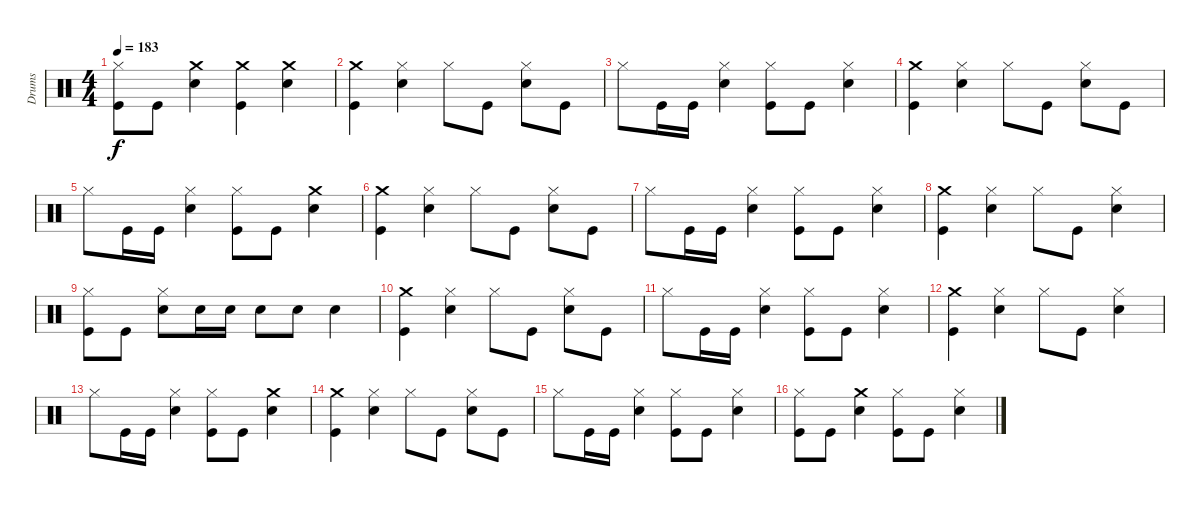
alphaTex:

\track ("Drums" "Drums") {instrument percussion}
\staff {score}
\articulation defaults
\ts (4 4)
\tempo 183
\clef neutral
\ks c
("Kick (hit)" "Hi-Hat (closed)").8{dy f} "Kick (hit)".8 ("Crash medium (hit)" "Snare (hit) 2").4 ("Kick (hit)" "Crash medium (hit)").4 ("Snare (hit) 2" "Crash medium (hit)").4 |
("Kick (hit)" "Crash medium (hit)").4 ("Snare (hit) 2" "Hi-Hat (closed)").4 "Hi-Hat (closed)".8 "Kick (hit)".8 ("Snare (hit) 2" "Hi-Hat (closed)").8 "Kick (hit)".8 |
"Hi-Hat (closed)".8 "Kick (hit)".16 "Kick (hit)".16 ("Snare (hit) 2" "Hi-Hat (closed)").4 ("Kick (hit)" "Hi-Hat (closed)").8 "Kick (hit)".8 ("Snare (hit) 2" "Hi-Hat (closed)").4 |
("Kick (hit)" "Crash medium (hit)").4 ("Hi-Hat (closed)" "Snare (hit) 2").4 "Hi-Hat (closed)".8 "Kick (hit)".8 ("Snare (hit) 2" "Hi-Hat (closed)").8 "Kick (hit)".8 |
"Hi-Hat (closed)".8 "Kick (hit)".16 "Kick (hit)".16 ("Snare (hit) 2" "Hi-Hat (closed)").4 ("Kick (hit)" "Hi-Hat (closed)").8 "Kick (hit)".8 ("Crash medium (hit)" "Snare (hit) 2").4 |
("Kick (hit)" "Crash medium (hit)").4 ("Hi-Hat (closed)" "Snare (hit) 2").4 "Hi-Hat (closed)".8 "Kick (hit)".8 ("Snare (hit) 2" "Hi-Hat (closed)").8 "Kick (hit)".8 |
"Hi-Hat (closed)".8 "Kick (hit)".16 "Kick (hit)".16 ("Snare (hit) 2" "Hi-Hat (closed)").4 ("Kick (hit)" "Hi-Hat (closed)").8 "Kick (hit)".8 ("Snare (hit) 2" "Hi-Hat (closed)").4 |
("Kick (hit)" "Crash medium (hit)").4 ("Hi-Hat (closed)" "Snare (hit) 2").4 "Hi-Hat (closed)".8 "Kick (hit)".8 ("Snare (hit) 2" "Hi-Hat (closed)").4 |
("Kick (hit)" "Hi-Hat (closed)").8 "Kick (hit)".8 ("Snare (hit) 2" "Hi-Hat (closed)").8 "Snare (hit) 2".16 "Snare (hit) 2".16 "Snare (hit) 2".8 "Snare (hit) 2".8 "Snare (hit) 2".4 |
("Kick (hit)" "Crash medium (hit)").4 ("Hi-Hat (closed)" "Snare (hit) 2").4 "Hi-Hat (closed)".8 "Kick (hit)".8 ("Snare (hit) 2" "Hi-Hat (closed)").8 "Kick (hit)".8 |
"Hi-Hat (closed)".8 "Kick (hit)".16 "Kick (hit)".16 ("Snare (hit) 2" "Hi-Hat (closed)").4 ("Kick (hit)" "Hi-Hat (closed)").8 "Kick (hit)".8 ("Snare (hit) 2" "Hi-Hat (closed)").4 |
("Kick (hit)" "Crash medium (hit)").4 ("Hi-Hat (closed)" "Snare (hit) 2").4 "Hi-Hat (closed)".8 "Kick (hit)".8 ("Snare (hit) 2" "Hi-Hat (closed)").4 |
"Hi-Hat (closed)".8 "Kick (hit)".16 "Kick (hit)".16 ("Snare (hit) 2" "Hi-Hat (closed)").4 ("Kick (hit)" "Hi-Hat (closed)").8 "Kick (hit)".8 ("Crash medium (hit)" "Snare (hit) 2").4 |
("Kick (hit)" "Crash medium (hit)").4 ("Hi-Hat (closed)" "Snare (hit) 2").4 "Hi-Hat (closed)".8 "Kick (hit)".8 ("Snare (hit) 2" "Hi-Hat (closed)").8 "Kick (hit)".8 |
"Hi-Hat (closed)".8 "Kick (hit)".16 "Kick (hit)".16 ("Snare (hit) 2" "Hi-Hat (closed)").4 ("Kick (hit)" "Hi-Hat (closed)").8 "Kick (hit)".8 ("Snare (hit) 2" "Hi-Hat (closed)").4 |
("Kick (hit)" "Hi-Hat (closed)").8 "Kick (hit)".8 ("Snare (hit) 2" "Crash medium (hit)").4 ("Kick (hit)" "Hi-Hat (closed)").8 "Kick (hit)".8 ("Snare (hit) 2" "Hi-Hat (closed)").4
